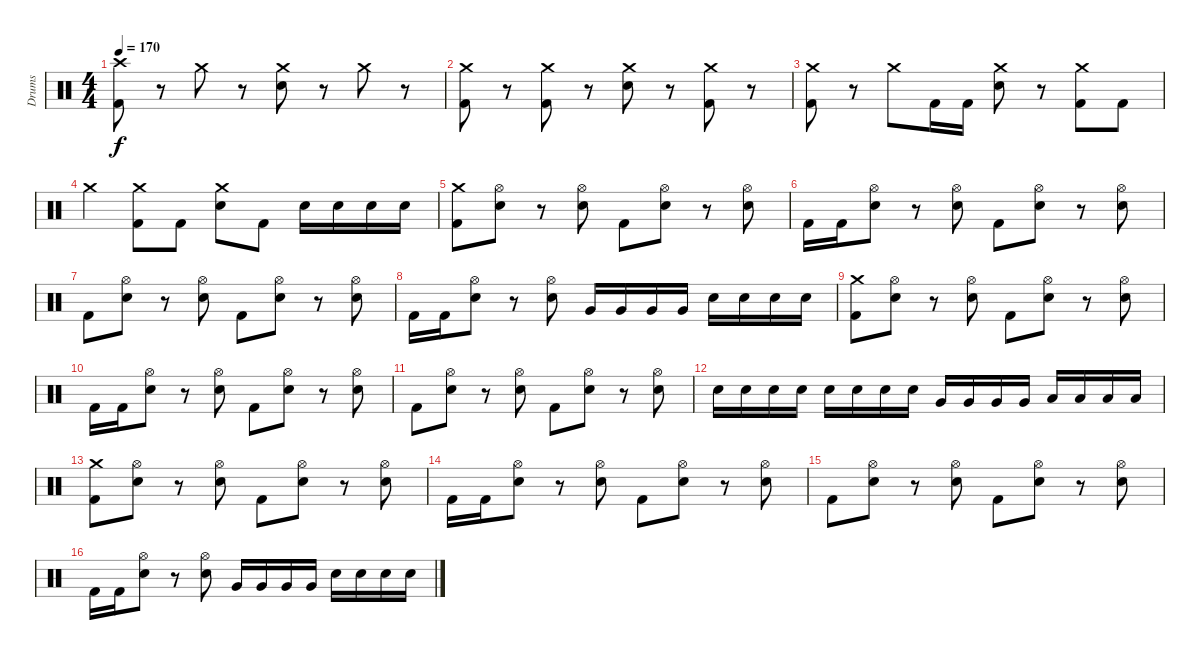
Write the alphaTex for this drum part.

\track ("Drums" "Drums") {instrument percussion}
\staff
\articulation defaults
\ts (4 4)
\tempo 170
\clef neutral
\ks c
("Crash high (hit)" "Kick (hit) 2").8{dy f} r.8 "Crash medium (hit)".8 r.8 ("Crash medium (hit)" "Electric Snare (hit)").8 r.8 "Crash medium (hit)".8 r.8 |
("Crash medium (hit)" "Kick (hit) 2").8 r.8 ("Crash medium (hit)" "Kick (hit) 2").8 r.8 ("Crash medium (hit)" "Electric Snare (hit)").8 r.8 ("Crash medium (hit)" "Kick (hit) 2").8 r.8 |
("Crash medium (hit)" "Kick (hit) 2").8 r.8 "Crash medium (hit)".8 "Kick (hit) 2".16 "Kick (hit) 2".16 ("Crash medium (hit)" "Electric Snare (hit)").8 r.8 ("Crash medium (hit)" "Kick (hit) 2").8 "Kick (hit) 2".8 |
"Crash medium (hit)".4 ("Crash medium (hit)" "Kick (hit) 2").8 "Kick (hit) 2".8 ("Crash medium (hit)" "Electric Snare (hit)").8 "Kick (hit) 2".8 "Electric Snare (hit)".16 "Electric Snare (hit)".16 "Electric Snare (hit)".16 "Electric Snare (hit)".16 |
("Crash medium (hit)" "Kick (hit) 2").8 ("Hi-Hat (open)" "Electric Snare (hit)").8 r.8 ("Hi-Hat (open)" "Electric Snare (hit)").8 "Kick (hit) 2".8 ("Hi-Hat (open)" "Electric Snare (hit)").8 r.8 ("Hi-Hat (open)" "Electric Snare (hit)").8 |
"Kick (hit) 2".16 "Kick (hit) 2".16 ("Hi-Hat (open)" "Electric Snare (hit)").8 r.8 ("Hi-Hat (open)" "Electric Snare (hit)").8 "Kick (hit) 2".8 ("Hi-Hat (open)" "Electric Snare (hit)").8 r.8 ("Hi-Hat (open)" "Electric Snare (hit)").8 |
"Kick (hit) 2".8 ("Hi-Hat (open)" "Electric Snare (hit)").8 r.8 ("Hi-Hat (open)" "Electric Snare (hit)").8 "Kick (hit) 2".8 ("Hi-Hat (open)" "Electric Snare (hit)").8 r.8 ("Hi-Hat (open)" "Electric Snare (hit)").8 |
"Kick (hit) 2".16 "Kick (hit) 2".16 ("Hi-Hat (open)" "Electric Snare (hit)").8 r.8 ("Hi-Hat (open)" "Electric Snare (hit)").8 "Very Low Tom (hit)".16 "Very Low Tom (hit)".16 "Very Low Tom (hit)".16 "Very Low Tom (hit)".16 "Electric Snare (hit)".16 "Electric Snare (hit)".16 "Electric Snare (hit)".16 "Electric Snare (hit)".16 |
("Crash medium (hit)" "Kick (hit) 2").8 ("Hi-Hat (open)" "Electric Snare (hit)").8 r.8 ("Hi-Hat (open)" "Electric Snare (hit)").8 "Kick (hit) 2".8 ("Hi-Hat (open)" "Electric Snare (hit)").8 r.8 ("Hi-Hat (open)" "Electric Snare (hit)").8 |
"Kick (hit) 2".16 "Kick (hit) 2".16 ("Hi-Hat (open)" "Electric Snare (hit)").8 r.8 ("Hi-Hat (open)" "Electric Snare (hit)").8 "Kick (hit) 2".8 ("Hi-Hat (open)" "Electric Snare (hit)").8 r.8 ("Hi-Hat (open)" "Electric Snare (hit)").8 |
"Kick (hit) 2".8 ("Hi-Hat (open)" "Electric Snare (hit)").8 r.8 ("Hi-Hat (open)" "Electric Snare (hit)").8 "Kick (hit) 2".8 ("Hi-Hat (open)" "Electric Snare (hit)").8 r.8 ("Hi-Hat (open)" "Electric Snare (hit)").8 |
"Electric Snare (hit)".16 "Electric Snare (hit)".16 "Electric Snare (hit)".16 "Electric Snare (hit)".16 "Electric Snare (hit)".16 "Electric Snare (hit)".16 "Electric Snare (hit)".16 "Electric Snare (hit)".16 "Very Low Tom (hit)".16 "Very Low Tom (hit)".16 "Very Low Tom (hit)".16 "Very Low Tom (hit)".16 "Low Floor Tom (hit)".16 "Low Floor Tom (hit)".16 "Low Floor Tom (hit)".16 "Low Floor Tom (hit)".16 |
("Crash medium (hit)" "Kick (hit) 2").8 ("Hi-Hat (open)" "Electric Snare (hit)").8 r.8 ("Hi-Hat (open)" "Electric Snare (hit)").8 "Kick (hit) 2".8 ("Hi-Hat (open)" "Electric Snare (hit)").8 r.8 ("Hi-Hat (open)" "Electric Snare (hit)").8 |
"Kick (hit) 2".16 "Kick (hit) 2".16 ("Hi-Hat (open)" "Electric Snare (hit)").8 r.8 ("Hi-Hat (open)" "Electric Snare (hit)").8 "Kick (hit) 2".8 ("Hi-Hat (open)" "Electric Snare (hit)").8 r.8 ("Hi-Hat (open)" "Electric Snare (hit)").8 |
"Kick (hit) 2".8 ("Hi-Hat (open)" "Electric Snare (hit)").8 r.8 ("Hi-Hat (open)" "Electric Snare (hit)").8 "Kick (hit) 2".8 ("Hi-Hat (open)" "Electric Snare (hit)").8 r.8 ("Hi-Hat (open)" "Electric Snare (hit)").8 |
"Kick (hit) 2".16 "Kick (hit) 2".16 ("Hi-Hat (open)" "Electric Snare (hit)").8 r.8 ("Hi-Hat (open)" "Electric Snare (hit)").8 "Very Low Tom (hit)".16 "Very Low Tom (hit)".16 "Very Low Tom (hit)".16 "Very Low Tom (hit)".16 "Electric Snare (hit)".16 "Electric Snare (hit)".16 "Electric Snare (hit)".16 "Electric Snare (hit)".16
